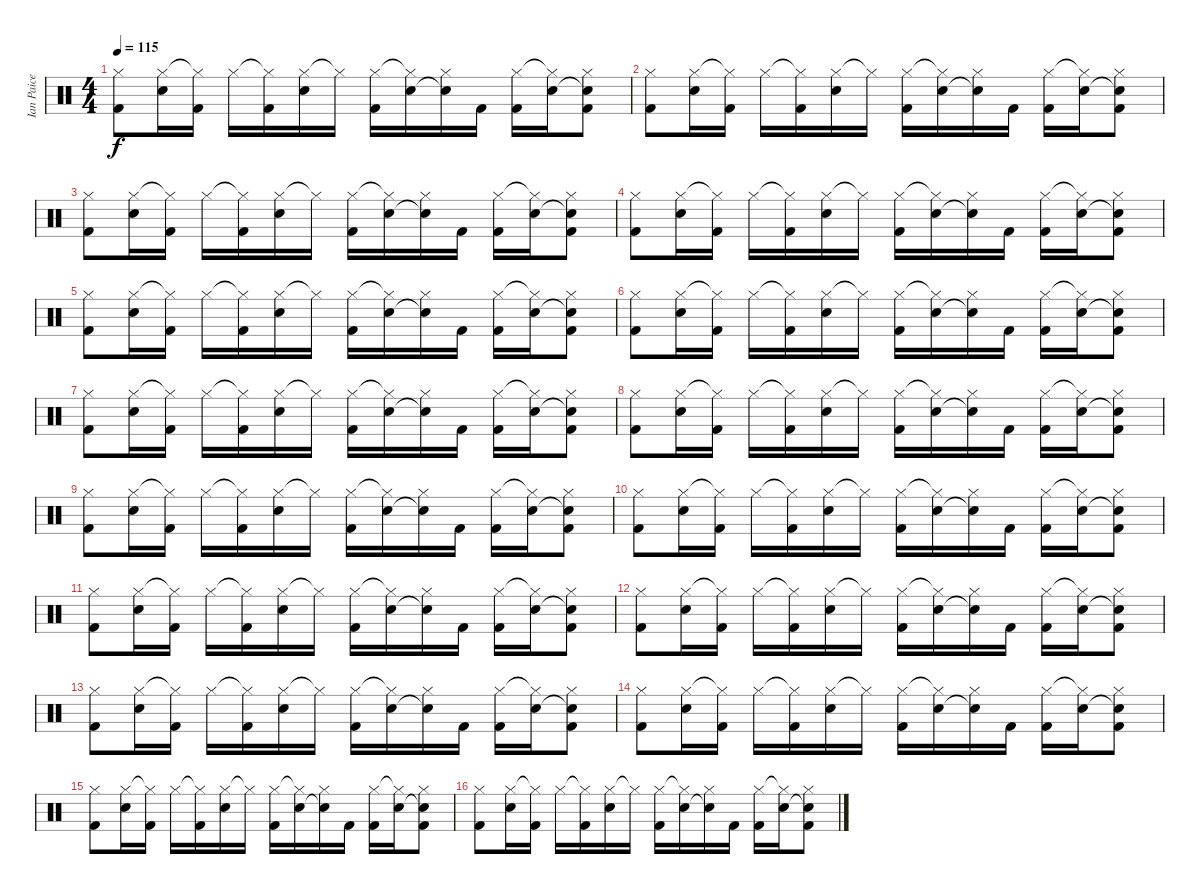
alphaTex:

\track ("Ian Paice" "Ian Paice") {instrument percussion}
\staff {score}
\articulation defaults
\ts (4 4)
\tempo 115
\clef neutral
\ks c
("Hi-Hat (closed)" "Kick (hit) 2").8{dy f} ("Hi-Hat (closed)" "Snare (hit) 2").16 ("Hi-Hat (closed)"{t} "Kick (hit) 2").16 "Hi-Hat (closed)".16 ("Hi-Hat (closed)"{t} "Kick (hit) 2").16 ("Hi-Hat (closed)" "Snare (hit) 2").16 "Hi-Hat (closed)"{t}.16 ("Hi-Hat (closed)" "Kick (hit) 2").16 ("Hi-Hat (closed)"{t} "Snare (hit) 2").16 ("Hi-Hat (closed)" "Snare (hit) 2"{t}).16 "Kick (hit) 2".16 ("Hi-Hat (closed)" "Kick (hit) 2").16 ("Hi-Hat (closed)"{t} "Snare (hit) 2").16 ("Hi-Hat (closed)" "Snare (hit) 2"{t} "Kick (hit) 2").8 |
("Hi-Hat (closed)" "Kick (hit) 2").8 ("Hi-Hat (closed)" "Snare (hit) 2").16 ("Hi-Hat (closed)"{t} "Kick (hit) 2").16 "Hi-Hat (closed)".16 ("Hi-Hat (closed)"{t} "Kick (hit) 2").16 ("Hi-Hat (closed)" "Snare (hit) 2").16 "Hi-Hat (closed)"{t}.16 ("Hi-Hat (closed)" "Kick (hit) 2").16 ("Hi-Hat (closed)"{t} "Snare (hit) 2").16 ("Hi-Hat (closed)" "Snare (hit) 2"{t}).16 "Kick (hit) 2".16 ("Hi-Hat (closed)" "Kick (hit) 2").16 ("Hi-Hat (closed)"{t} "Snare (hit) 2").16 ("Hi-Hat (closed)" "Snare (hit) 2"{t} "Kick (hit) 2").8 |
("Hi-Hat (closed)" "Kick (hit) 2").8 ("Hi-Hat (closed)" "Snare (hit) 2").16 ("Hi-Hat (closed)"{t} "Kick (hit) 2").16 "Hi-Hat (closed)".16 ("Hi-Hat (closed)"{t} "Kick (hit) 2").16 ("Hi-Hat (closed)" "Snare (hit) 2").16 "Hi-Hat (closed)"{t}.16 ("Hi-Hat (closed)" "Kick (hit) 2").16 ("Hi-Hat (closed)"{t} "Snare (hit) 2").16 ("Hi-Hat (closed)" "Snare (hit) 2"{t}).16 "Kick (hit) 2".16 ("Hi-Hat (closed)" "Kick (hit) 2").16 ("Hi-Hat (closed)"{t} "Snare (hit) 2").16 ("Hi-Hat (closed)" "Snare (hit) 2"{t} "Kick (hit) 2").8 |
("Hi-Hat (closed)" "Kick (hit) 2").8 ("Hi-Hat (closed)" "Snare (hit) 2").16 ("Hi-Hat (closed)"{t} "Kick (hit) 2").16 "Hi-Hat (closed)".16 ("Hi-Hat (closed)"{t} "Kick (hit) 2").16 ("Hi-Hat (closed)" "Snare (hit) 2").16 "Hi-Hat (closed)"{t}.16 ("Hi-Hat (closed)" "Kick (hit) 2").16 ("Hi-Hat (closed)"{t} "Snare (hit) 2").16 ("Hi-Hat (closed)" "Snare (hit) 2"{t}).16 "Kick (hit) 2".16 ("Hi-Hat (closed)" "Kick (hit) 2").16 ("Hi-Hat (closed)"{t} "Snare (hit) 2").16 ("Hi-Hat (closed)" "Snare (hit) 2"{t} "Kick (hit) 2").8 |
("Hi-Hat (closed)" "Kick (hit) 2").8 ("Hi-Hat (closed)" "Snare (hit) 2").16 ("Hi-Hat (closed)"{t} "Kick (hit) 2").16 "Hi-Hat (closed)".16 ("Hi-Hat (closed)"{t} "Kick (hit) 2").16 ("Hi-Hat (closed)" "Snare (hit) 2").16 "Hi-Hat (closed)"{t}.16 ("Hi-Hat (closed)" "Kick (hit) 2").16 ("Hi-Hat (closed)"{t} "Snare (hit) 2").16 ("Hi-Hat (closed)" "Snare (hit) 2"{t}).16 "Kick (hit) 2".16 ("Hi-Hat (closed)" "Kick (hit) 2").16 ("Hi-Hat (closed)"{t} "Snare (hit) 2").16 ("Hi-Hat (closed)" "Snare (hit) 2"{t} "Kick (hit) 2").8 |
("Hi-Hat (closed)" "Kick (hit) 2").8 ("Hi-Hat (closed)" "Snare (hit) 2").16 ("Hi-Hat (closed)"{t} "Kick (hit) 2").16 "Hi-Hat (closed)".16 ("Hi-Hat (closed)"{t} "Kick (hit) 2").16 ("Hi-Hat (closed)" "Snare (hit) 2").16 "Hi-Hat (closed)"{t}.16 ("Hi-Hat (closed)" "Kick (hit) 2").16 ("Hi-Hat (closed)"{t} "Snare (hit) 2").16 ("Hi-Hat (closed)" "Snare (hit) 2"{t}).16 "Kick (hit) 2".16 ("Hi-Hat (closed)" "Kick (hit) 2").16 ("Hi-Hat (closed)"{t} "Snare (hit) 2").16 ("Hi-Hat (closed)" "Snare (hit) 2"{t} "Kick (hit) 2").8 |
("Hi-Hat (closed)" "Kick (hit) 2").8 ("Hi-Hat (closed)" "Snare (hit) 2").16 ("Hi-Hat (closed)"{t} "Kick (hit) 2").16 "Hi-Hat (closed)".16 ("Hi-Hat (closed)"{t} "Kick (hit) 2").16 ("Hi-Hat (closed)" "Snare (hit) 2").16 "Hi-Hat (closed)"{t}.16 ("Hi-Hat (closed)" "Kick (hit) 2").16 ("Hi-Hat (closed)"{t} "Snare (hit) 2").16 ("Hi-Hat (closed)" "Snare (hit) 2"{t}).16 "Kick (hit) 2".16 ("Hi-Hat (closed)" "Kick (hit) 2").16 ("Hi-Hat (closed)"{t} "Snare (hit) 2").16 ("Hi-Hat (closed)" "Snare (hit) 2"{t} "Kick (hit) 2").8 |
("Hi-Hat (closed)" "Kick (hit) 2").8 ("Hi-Hat (closed)" "Snare (hit) 2").16 ("Hi-Hat (closed)"{t} "Kick (hit) 2").16 "Hi-Hat (closed)".16 ("Hi-Hat (closed)"{t} "Kick (hit) 2").16 ("Hi-Hat (closed)" "Snare (hit) 2").16 "Hi-Hat (closed)"{t}.16 ("Hi-Hat (closed)" "Kick (hit) 2").16 ("Hi-Hat (closed)"{t} "Snare (hit) 2").16 ("Hi-Hat (closed)" "Snare (hit) 2"{t}).16 "Kick (hit) 2".16 ("Hi-Hat (closed)" "Kick (hit) 2").16 ("Hi-Hat (closed)"{t} "Snare (hit) 2").16 ("Hi-Hat (closed)" "Snare (hit) 2"{t} "Kick (hit) 2").8 |
("Hi-Hat (closed)" "Kick (hit) 2").8 ("Hi-Hat (closed)" "Snare (hit) 2").16 ("Hi-Hat (closed)"{t} "Kick (hit) 2").16 "Hi-Hat (closed)".16 ("Hi-Hat (closed)"{t} "Kick (hit) 2").16 ("Hi-Hat (closed)" "Snare (hit) 2").16 "Hi-Hat (closed)"{t}.16 ("Hi-Hat (closed)" "Kick (hit) 2").16 ("Hi-Hat (closed)"{t} "Snare (hit) 2").16 ("Hi-Hat (closed)" "Snare (hit) 2"{t}).16 "Kick (hit) 2".16 ("Hi-Hat (closed)" "Kick (hit) 2").16 ("Hi-Hat (closed)"{t} "Snare (hit) 2").16 ("Hi-Hat (closed)" "Snare (hit) 2"{t} "Kick (hit) 2").8 |
("Hi-Hat (closed)" "Kick (hit) 2").8 ("Hi-Hat (closed)" "Snare (hit) 2").16 ("Hi-Hat (closed)"{t} "Kick (hit) 2").16 "Hi-Hat (closed)".16 ("Hi-Hat (closed)"{t} "Kick (hit) 2").16 ("Hi-Hat (closed)" "Snare (hit) 2").16 "Hi-Hat (closed)"{t}.16 ("Hi-Hat (closed)" "Kick (hit) 2").16 ("Hi-Hat (closed)"{t} "Snare (hit) 2").16 ("Hi-Hat (closed)" "Snare (hit) 2"{t}).16 "Kick (hit) 2".16 ("Hi-Hat (closed)" "Kick (hit) 2").16 ("Hi-Hat (closed)"{t} "Snare (hit) 2").16 ("Hi-Hat (closed)" "Snare (hit) 2"{t} "Kick (hit) 2").8 |
("Hi-Hat (closed)" "Kick (hit) 2").8 ("Hi-Hat (closed)" "Snare (hit) 2").16 ("Hi-Hat (closed)"{t} "Kick (hit) 2").16 "Hi-Hat (closed)".16 ("Hi-Hat (closed)"{t} "Kick (hit) 2").16 ("Hi-Hat (closed)" "Snare (hit) 2").16 "Hi-Hat (closed)"{t}.16 ("Hi-Hat (closed)" "Kick (hit) 2").16 ("Hi-Hat (closed)"{t} "Snare (hit) 2").16 ("Hi-Hat (closed)" "Snare (hit) 2"{t}).16 "Kick (hit) 2".16 ("Hi-Hat (closed)" "Kick (hit) 2").16 ("Hi-Hat (closed)"{t} "Snare (hit) 2").16 ("Hi-Hat (closed)" "Snare (hit) 2"{t} "Kick (hit) 2").8 |
("Hi-Hat (closed)" "Kick (hit) 2").8 ("Hi-Hat (closed)" "Snare (hit) 2").16 ("Hi-Hat (closed)"{t} "Kick (hit) 2").16 "Hi-Hat (closed)".16 ("Hi-Hat (closed)"{t} "Kick (hit) 2").16 ("Hi-Hat (closed)" "Snare (hit) 2").16 "Hi-Hat (closed)"{t}.16 ("Hi-Hat (closed)" "Kick (hit) 2").16 ("Hi-Hat (closed)"{t} "Snare (hit) 2").16 ("Hi-Hat (closed)" "Snare (hit) 2"{t}).16 "Kick (hit) 2".16 ("Hi-Hat (closed)" "Kick (hit) 2").16 ("Hi-Hat (closed)"{t} "Snare (hit) 2").16 ("Hi-Hat (closed)" "Snare (hit) 2"{t} "Kick (hit) 2").8 |
("Hi-Hat (closed)" "Kick (hit) 2").8 ("Hi-Hat (closed)" "Snare (hit) 2").16 ("Hi-Hat (closed)"{t} "Kick (hit) 2").16 "Hi-Hat (closed)".16 ("Hi-Hat (closed)"{t} "Kick (hit) 2").16 ("Hi-Hat (closed)" "Snare (hit) 2").16 "Hi-Hat (closed)"{t}.16 ("Hi-Hat (closed)" "Kick (hit) 2").16 ("Hi-Hat (closed)"{t} "Snare (hit) 2").16 ("Hi-Hat (closed)" "Snare (hit) 2"{t}).16 "Kick (hit) 2".16 ("Hi-Hat (closed)" "Kick (hit) 2").16 ("Hi-Hat (closed)"{t} "Snare (hit) 2").16 ("Hi-Hat (closed)" "Snare (hit) 2"{t} "Kick (hit) 2").8 |
("Hi-Hat (closed)" "Kick (hit) 2").8 ("Hi-Hat (closed)" "Snare (hit) 2").16 ("Hi-Hat (closed)"{t} "Kick (hit) 2").16 "Hi-Hat (closed)".16 ("Hi-Hat (closed)"{t} "Kick (hit) 2").16 ("Hi-Hat (closed)" "Snare (hit) 2").16 "Hi-Hat (closed)"{t}.16 ("Hi-Hat (closed)" "Kick (hit) 2").16 ("Hi-Hat (closed)"{t} "Snare (hit) 2").16 ("Hi-Hat (closed)" "Snare (hit) 2"{t}).16 "Kick (hit) 2".16 ("Hi-Hat (closed)" "Kick (hit) 2").16 ("Hi-Hat (closed)"{t} "Snare (hit) 2").16 ("Hi-Hat (closed)" "Snare (hit) 2"{t} "Kick (hit) 2").8 |
("Hi-Hat (closed)" "Kick (hit) 2").8 ("Hi-Hat (closed)" "Snare (hit) 2").16 ("Hi-Hat (closed)"{t} "Kick (hit) 2").16 "Hi-Hat (closed)".16 ("Hi-Hat (closed)"{t} "Kick (hit) 2").16 ("Hi-Hat (closed)" "Snare (hit) 2").16 "Hi-Hat (closed)"{t}.16 ("Hi-Hat (closed)" "Kick (hit) 2").16 ("Hi-Hat (closed)"{t} "Snare (hit) 2").16 ("Hi-Hat (closed)" "Snare (hit) 2"{t}).16 "Kick (hit) 2".16 ("Hi-Hat (closed)" "Kick (hit) 2").16 ("Hi-Hat (closed)"{t} "Snare (hit) 2").16 ("Hi-Hat (closed)" "Snare (hit) 2"{t} "Kick (hit) 2").8 |
("Hi-Hat (closed)" "Kick (hit) 2").8 ("Hi-Hat (closed)" "Snare (hit) 2").16 ("Hi-Hat (closed)"{t} "Kick (hit) 2").16 "Hi-Hat (closed)".16 ("Hi-Hat (closed)"{t} "Kick (hit) 2").16 ("Hi-Hat (closed)" "Snare (hit) 2").16 "Hi-Hat (closed)"{t}.16 ("Hi-Hat (closed)" "Kick (hit) 2").16 ("Hi-Hat (closed)"{t} "Snare (hit) 2").16 ("Hi-Hat (closed)" "Snare (hit) 2"{t}).16 "Kick (hit) 2".16 ("Hi-Hat (closed)" "Kick (hit) 2").16 ("Hi-Hat (closed)"{t} "Snare (hit) 2").16 ("Hi-Hat (closed)" "Snare (hit) 2"{t} "Kick (hit) 2").8
